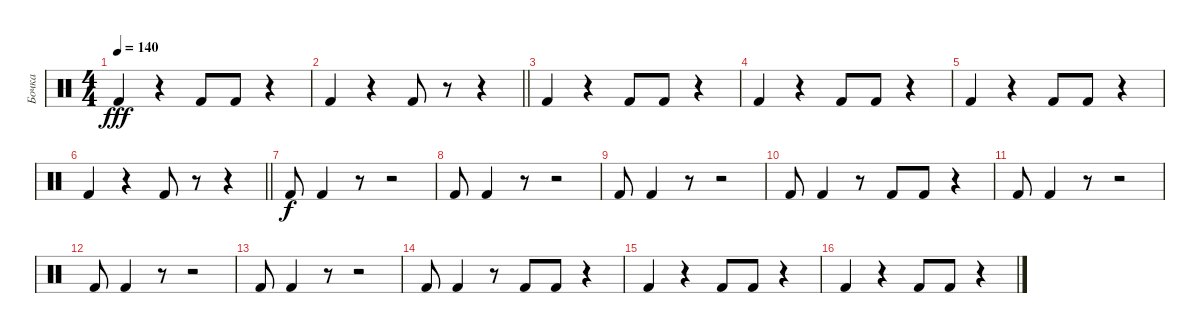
\track ("Бочка" "Бочка") {instrument percussion}
\staff {score}
\articulation defaults
\ts (4 4)
\tempo 140
\clef neutral
\ks c "Kick (hit) 2".4{dy fff}
r.4 "Kick (hit) 2".8 "Kick (hit) 2".8 r.4 |
\barLineRight lightlight "Kick (hit) 2".4
r.4 "Kick (hit) 2".8 r.8 r.4 |
"Kick (hit) 2".4 r.4 "Kick (hit) 2".8 "Kick (hit) 2".8 r.4 |
"Kick (hit) 2".4 r.4 "Kick (hit) 2".8 "Kick (hit) 2".8 r.4 |
"Kick (hit) 2".4 r.4 "Kick (hit) 2".8 "Kick (hit) 2".8 r.4 |
\barLineRight lightlight "Kick (hit) 2".4
r.4 "Kick (hit) 2".8 r.8 r.4 |
"Kick (hit) 2".8{dy f} "Kick (hit) 2".4 r.8 r.2 |
"Kick (hit) 2".8 "Kick (hit) 2".4 r.8 r.2 |
"Kick (hit) 2".8 "Kick (hit) 2".4 r.8 r.2 |
"Kick (hit) 2".8 "Kick (hit) 2".4 r.8 "Kick (hit) 2".8 "Kick (hit) 2".8 r.4 |
"Kick (hit) 2".8 "Kick (hit) 2".4 r.8 r.2 |
"Kick (hit) 2".8 "Kick (hit) 2".4 r.8 r.2 |
"Kick (hit) 2".8 "Kick (hit) 2".4 r.8 r.2 |
"Kick (hit) 2".8 "Kick (hit) 2".4 r.8 "Kick (hit) 2".8 "Kick (hit) 2".8 r.4 |
"Kick (hit) 2".4 r.4 "Kick (hit) 2".8 "Kick (hit) 2".8 r.4 |
"Kick (hit) 2".4 r.4 "Kick (hit) 2".8 "Kick (hit) 2".8 r.4
